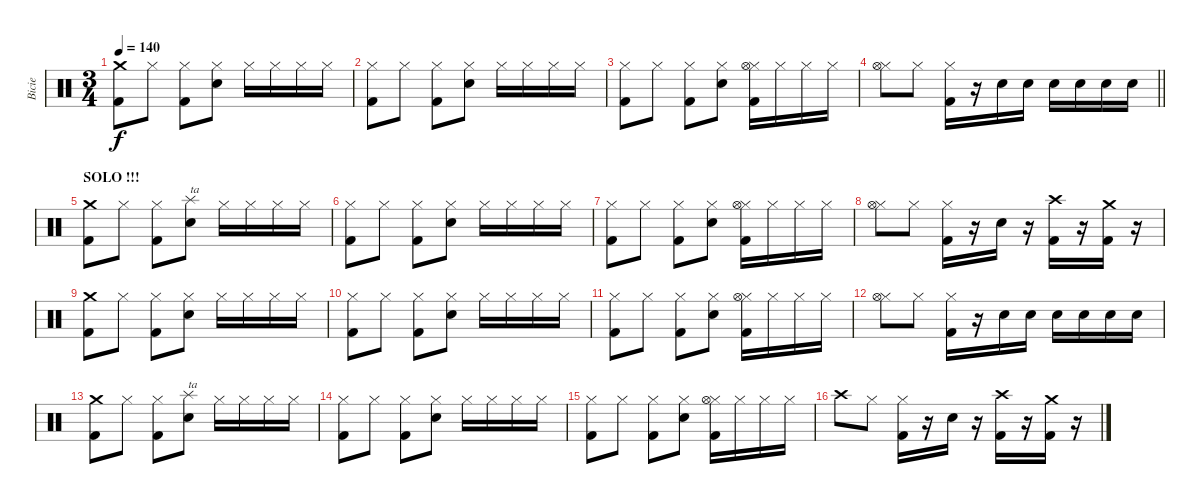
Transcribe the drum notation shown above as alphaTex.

\track ("Bicie" "Bicie") {instrument percussion}
\staff {score}
\articulation defaults
\ts (3 4)
\tempo 140
\clef neutral
\ks c
("Crash medium (hit)" "Kick (hit) 2").8{dy f volume 15} "Hi-Hat (closed)".8 ("Hi-Hat (closed)" "Kick (hit) 2").8 ("Hi-Hat (closed)" "Snare (hit) 2").8 "Hi-Hat (closed)".16 "Hi-Hat (closed)".16 "Hi-Hat (closed)".16 "Hi-Hat (closed)".16 |
("Hi-Hat (closed)" "Kick (hit) 2").8 "Hi-Hat (closed)".8 ("Hi-Hat (closed)" "Kick (hit) 2").8 ("Hi-Hat (closed)" "Snare (hit) 2").8 "Hi-Hat (closed)".16 "Hi-Hat (closed)".16 "Hi-Hat (closed)".16 "Hi-Hat (closed)".16 |
("Hi-Hat (closed)" "Kick (hit) 2").8 "Hi-Hat (closed)".8 ("Hi-Hat (closed)" "Kick (hit) 2").8 ("Hi-Hat (closed)" "Snare (hit) 2").8 ("Hi-Hat (closed)" "Hi-Hat (open)" "Kick (hit) 2").16 "Hi-Hat (closed)".16 "Hi-Hat (closed)".16 "Hi-Hat (closed)".16 |
\barLineRight lightlight
("Hi-Hat (closed)" "Hi-Hat (open)").8 "Hi-Hat (closed)".8 ("Hi-Hat (closed)" "Kick (hit) 2").16 r.16 "Snare (hit) 2".16 "Snare (hit) 2".16 "Snare (hit) 2".16 "Snare (hit) 2".16 "Snare (hit) 2".16 "Snare (hit) 2".16 |
\section ("" "SOLO !!!")
("Crash medium (hit)" "Kick (hit) 2").8{volume 15} "Hi-Hat (closed)".8 ("Hi-Hat (closed)" "Kick (hit) 2").8 ("Splash (hit)" "Snare (hit) 2").8{txt "ta"} "Hi-Hat (closed)".16 "Hi-Hat (closed)".16 "Hi-Hat (closed)".16 "Hi-Hat (closed)".16 |
("Hi-Hat (closed)" "Kick (hit) 2").8 "Hi-Hat (closed)".8 ("Hi-Hat (closed)" "Kick (hit) 2").8 ("Hi-Hat (closed)" "Snare (hit) 2").8 "Hi-Hat (closed)".16 "Hi-Hat (closed)".16 "Hi-Hat (closed)".16 "Hi-Hat (closed)".16 |
("Hi-Hat (closed)" "Kick (hit) 2").8 "Hi-Hat (closed)".8 ("Hi-Hat (closed)" "Kick (hit) 2").8 ("Hi-Hat (closed)" "Snare (hit) 2").8 ("Hi-Hat (closed)" "Hi-Hat (open)" "Kick (hit) 2").16 "Hi-Hat (closed)".16 "Hi-Hat (closed)".16 "Hi-Hat (closed)".16 |
("Hi-Hat (closed)" "Hi-Hat (open)").8 "Hi-Hat (closed)".8 ("Hi-Hat (closed)" "Kick (hit) 2").16 r.16 "Snare (hit) 2".16 r.16 ("Crash high (hit)" "Kick (hit) 2").16 r.16 ("Crash medium (hit)" "Kick (hit) 2").16 r.16 |
("Crash medium (hit)" "Kick (hit) 2").8{volume 15} "Hi-Hat (closed)".8 ("Hi-Hat (closed)" "Kick (hit) 2").8 ("Hi-Hat (closed)" "Snare (hit) 2").8 "Hi-Hat (closed)".16 "Hi-Hat (closed)".16 "Hi-Hat (closed)".16 "Hi-Hat (closed)".16 |
("Hi-Hat (closed)" "Kick (hit) 2").8 "Hi-Hat (closed)".8 ("Hi-Hat (closed)" "Kick (hit) 2").8 ("Hi-Hat (closed)" "Snare (hit) 2").8 "Hi-Hat (closed)".16 "Hi-Hat (closed)".16 "Hi-Hat (closed)".16 "Hi-Hat (closed)".16 |
("Hi-Hat (closed)" "Kick (hit) 2").8 "Hi-Hat (closed)".8 ("Hi-Hat (closed)" "Kick (hit) 2").8 ("Hi-Hat (closed)" "Snare (hit) 2").8 ("Hi-Hat (closed)" "Hi-Hat (open)" "Kick (hit) 2").16 "Hi-Hat (closed)".16 "Hi-Hat (closed)".16 "Hi-Hat (closed)".16 |
("Hi-Hat (closed)" "Hi-Hat (open)").8 "Hi-Hat (closed)".8 ("Hi-Hat (closed)" "Kick (hit) 2").16 r.16 "Snare (hit) 2".16 "Snare (hit) 2".16 "Snare (hit) 2".16 "Snare (hit) 2".16 "Snare (hit) 2".16 "Snare (hit) 2".16 |
("Crash medium (hit)" "Kick (hit) 2").8{volume 15} "Hi-Hat (closed)".8 ("Hi-Hat (closed)" "Kick (hit) 2").8 ("Splash (hit)" "Snare (hit) 2").8{txt "ta"} "Hi-Hat (closed)".16 "Hi-Hat (closed)".16 "Hi-Hat (closed)".16 "Hi-Hat (closed)".16 |
("Hi-Hat (closed)" "Kick (hit) 2").8 "Hi-Hat (closed)".8 ("Hi-Hat (closed)" "Kick (hit) 2").8 ("Hi-Hat (closed)" "Snare (hit) 2").8 "Hi-Hat (closed)".16 "Hi-Hat (closed)".16 "Hi-Hat (closed)".16 "Hi-Hat (closed)".16 |
("Hi-Hat (closed)" "Kick (hit) 2").8 "Hi-Hat (closed)".8 ("Hi-Hat (closed)" "Kick (hit) 2").8 ("Hi-Hat (closed)" "Snare (hit) 2").8 ("Hi-Hat (closed)" "Hi-Hat (open)" "Kick (hit) 2").16 "Hi-Hat (closed)".16 "Hi-Hat (closed)".16 "Hi-Hat (closed)".16 |
"Crash high (hit)".8 "Hi-Hat (closed)".8 ("Hi-Hat (closed)" "Kick (hit) 2").16 r.16 "Snare (hit) 2".16 r.16 ("Crash high (hit)" "Kick (hit) 2").16 r.16 ("Crash medium (hit)" "Kick (hit) 2").16 r.16
